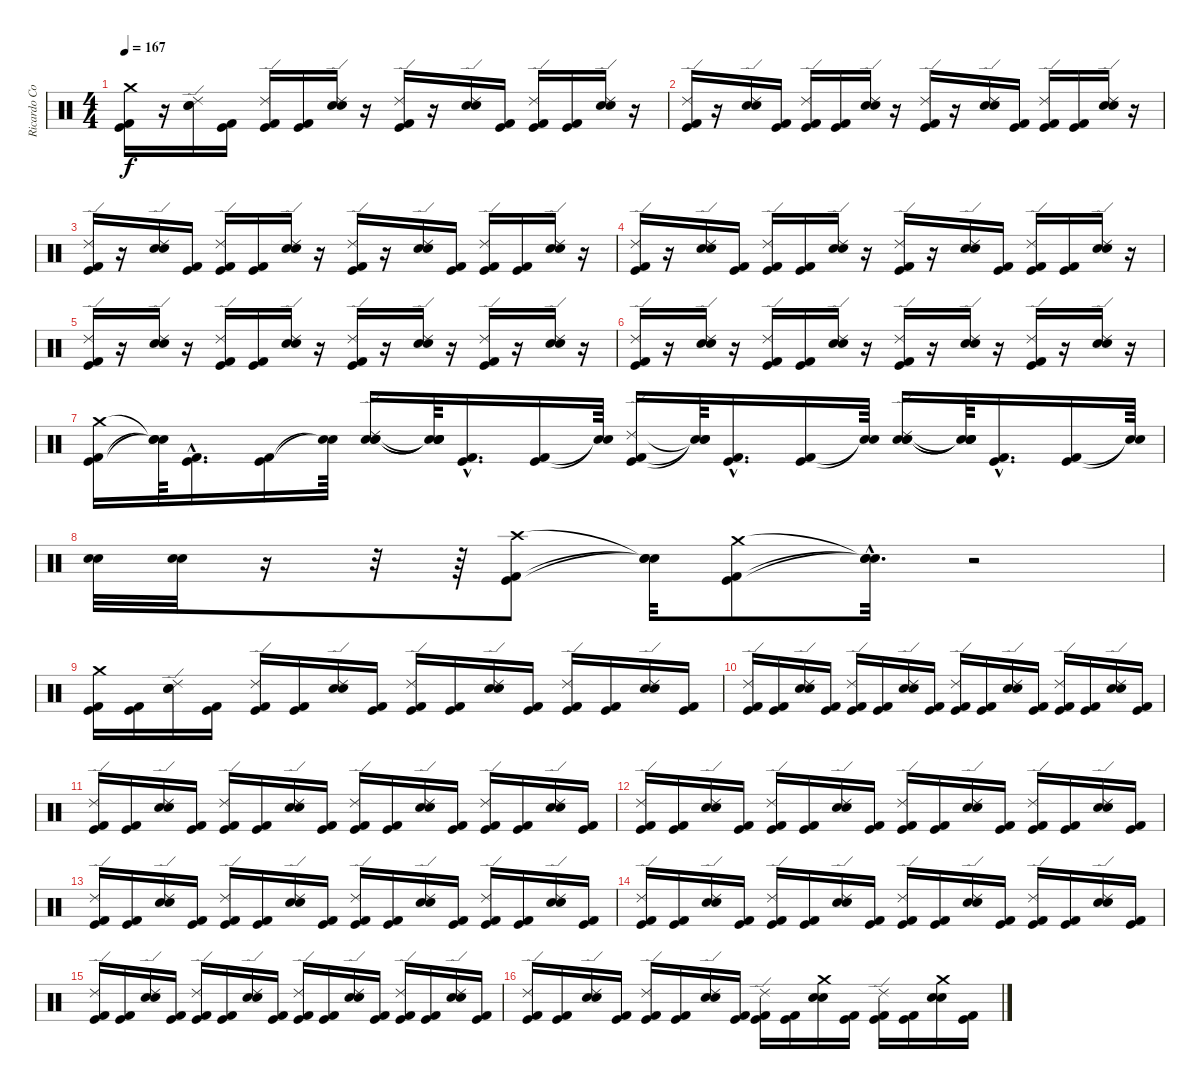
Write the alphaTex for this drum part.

\track ("Ricardo Confessori" "Ricardo Co") {instrument percussion}
\staff {score}
\articulation defaults
\ts (4 4)
\tempo 167
\clef neutral
\ks c
("Crash medium (hit)" "Kick (hit) 2" "Kick (hit)").16{dy f} r.16 ("Ride (edge) 2" "Electric Snare (hit)" "Snare (hit) 2").16 ("Kick (hit) 2" "Kick (hit)").16 ("Ride (edge) 2" "Kick (hit) 2" "Kick (hit)").16 ("Kick (hit) 2" "Kick (hit)").16 ("Ride (edge) 2" "Electric Snare (hit)" "Snare (hit) 2").16 r.16 ("Ride (edge) 2" "Kick (hit) 2" "Kick (hit)").16 r.16 ("Ride (edge) 2" "Electric Snare (hit)" "Snare (hit) 2").16 ("Kick (hit) 2" "Kick (hit)").16 ("Ride (edge) 2" "Kick (hit) 2" "Kick (hit)").16 ("Kick (hit) 2" "Kick (hit)").16 ("Ride (edge) 2" "Electric Snare (hit)" "Snare (hit) 2").16 r.16 |
("Ride (edge) 2" "Kick (hit) 2" "Kick (hit)").16 r.16 ("Ride (edge) 2" "Electric Snare (hit)" "Snare (hit) 2").16 ("Kick (hit) 2" "Kick (hit)").16 ("Ride (edge) 2" "Kick (hit) 2" "Kick (hit)").16 ("Kick (hit) 2" "Kick (hit)").16 ("Ride (edge) 2" "Electric Snare (hit)" "Snare (hit) 2").16 r.16 ("Ride (edge) 2" "Kick (hit) 2" "Kick (hit)").16 r.16 ("Ride (edge) 2" "Electric Snare (hit)" "Snare (hit) 2").16 ("Kick (hit) 2" "Kick (hit)").16 ("Ride (edge) 2" "Kick (hit) 2" "Kick (hit)").16 ("Kick (hit) 2" "Kick (hit)").16 ("Ride (edge) 2" "Electric Snare (hit)" "Snare (hit) 2").16 r.16 |
("Ride (edge) 2" "Kick (hit) 2" "Kick (hit)").16 r.16 ("Ride (edge) 2" "Electric Snare (hit)" "Snare (hit) 2").16 ("Kick (hit) 2" "Kick (hit)").16 ("Ride (edge) 2" "Kick (hit) 2" "Kick (hit)").16 ("Kick (hit) 2" "Kick (hit)").16 ("Ride (edge) 2" "Electric Snare (hit)" "Snare (hit) 2").16 r.16 ("Ride (edge) 2" "Kick (hit) 2" "Kick (hit)").16 r.16 ("Ride (edge) 2" "Electric Snare (hit)" "Snare (hit) 2").16 ("Kick (hit) 2" "Kick (hit)").16 ("Ride (edge) 2" "Kick (hit) 2" "Kick (hit)").16 ("Kick (hit) 2" "Kick (hit)").16 ("Ride (edge) 2" "Electric Snare (hit)" "Snare (hit) 2").16 r.16 |
("Ride (edge) 2" "Kick (hit) 2" "Kick (hit)").16 r.16 ("Ride (edge) 2" "Electric Snare (hit)" "Snare (hit) 2").16 ("Kick (hit) 2" "Kick (hit)").16 ("Ride (edge) 2" "Kick (hit) 2" "Kick (hit)").16 ("Kick (hit) 2" "Kick (hit)").16 ("Ride (edge) 2" "Electric Snare (hit)" "Snare (hit) 2").16 r.16 ("Ride (edge) 2" "Kick (hit) 2" "Kick (hit)").16 r.16 ("Ride (edge) 2" "Electric Snare (hit)" "Snare (hit) 2").16 ("Kick (hit) 2" "Kick (hit)").16 ("Ride (edge) 2" "Kick (hit) 2" "Kick (hit)").16 ("Kick (hit) 2" "Kick (hit)").16 ("Ride (edge) 2" "Electric Snare (hit)" "Snare (hit) 2").16 r.16 |
("Kick (hit) 2" "Ride (edge) 2" "Kick (hit)").16 r.16 ("Electric Snare (hit)" "Snare (hit) 2" "Ride (edge) 2").16 r.16 ("Kick (hit) 2" "Kick (hit)" "Ride (edge) 2").16 ("Kick (hit) 2" "Kick (hit)").16 ("Electric Snare (hit)" "Snare (hit) 2" "Ride (edge) 2").16 r.16 ("Kick (hit) 2" "Kick (hit)" "Ride (edge) 2").16 r.16 ("Electric Snare (hit)" "Snare (hit) 2" "Ride (edge) 2").16 r.16 ("Kick (hit) 2" "Kick (hit)" "Ride (edge) 2").16 r.16 ("Electric Snare (hit)" "Snare (hit) 2" "Ride (edge) 2").16 r.16 |
("Kick (hit) 2" "Ride (edge) 2" "Kick (hit)").16 r.16 ("Electric Snare (hit)" "Snare (hit) 2" "Ride (edge) 2").16 r.16 ("Kick (hit) 2" "Kick (hit)" "Ride (edge) 2").16 ("Kick (hit) 2" "Kick (hit)").16 ("Electric Snare (hit)" "Snare (hit) 2" "Ride (edge) 2").16 r.16 ("Kick (hit) 2" "Kick (hit)" "Ride (edge) 2").16 r.16 ("Electric Snare (hit)" "Snare (hit) 2" "Ride (edge) 2").16 r.16 ("Kick (hit) 2" "Kick (hit)" "Ride (edge) 2").16 r.16 ("Electric Snare (hit)" "Snare (hit) 2" "Ride (edge) 2").16 r.16 |
("Crash medium (hit)" "Kick (hit) 2" "Kick (hit)").16 ("Snare (hit)"{t} "Snare (hit)"{t} "Snare (hit)"{t}).64 ("Kick (hit) 2"{hac} "Kick (hit)"{hac}).16{d} ("Kick (hit) 2" "Kick (hit)").16 ("Snare (hit)"{t} "Snare (hit)"{t}).64 ("Electric Snare (hit)" "Snare (hit) 2" "Ride (edge) 2" "Snare (hit)").16 ("Snare (hit)"{t} "Snare (hit)"{t} "Snare (hit)"{t} "Snare (hit)"{t}).64 ("Kick (hit) 2"{hac} "Kick (hit)"{hac}).16{d} ("Kick (hit) 2" "Kick (hit)").16 ("Snare (hit)"{t} "Snare (hit)"{t}).64 ("Ride (edge) 2" "Kick (hit) 2" "Kick (hit)").16 ("Snare (hit)"{t} "Snare (hit)"{t} "Snare (hit)"{t}).64 ("Kick (hit) 2"{hac} "Kick (hit)"{hac}).16{d} ("Kick (hit) 2" "Kick (hit)").16 ("Snare (hit)"{t} "Snare (hit)"{t}).64 ("Electric Snare (hit)" "Snare (hit) 2" "Ride (edge) 2" "Snare (hit)").16 ("Snare (hit)"{t} "Snare (hit)"{t} "Snare (hit)"{t} "Snare (hit)"{t}).64 ("Kick (hit) 2"{hac} "Kick (hit)"{hac}).16{d} ("Kick (hit) 2" "Kick (hit)").16 ("Snare (hit)"{t} "Snare (hit)"{t}).64 |
("Electric Snare (hit)" "Snare (hit) 2").32 ("Snare (hit) 2" "Electric Snare (hit)").32 r.16 r.32 r.64 ("Crash high (hit)" "Kick (hit) 2" "Kick (hit)").8 ("Snare (hit)"{t} "Snare (hit)"{t} "Snare (hit)"{t}).32 ("Crash medium (hit)" "Kick (hit) 2" "Kick (hit)").8 ("Snare (hit)"{hac t} "Snare (hit)"{hac t} "Snare (hit)"{hac t}).32{d} r.2 |
("Crash medium (hit)" "Kick (hit) 2" "Kick (hit)").16 ("Kick (hit) 2" "Kick (hit)").16 ("Electric Snare (hit)" "Snare (hit) 2" "Ride (edge) 2").16 ("Kick (hit) 2" "Kick (hit)").16 ("Ride (edge) 2" "Kick (hit) 2" "Kick (hit)").16 ("Kick (hit) 2" "Kick (hit)").16 ("Electric Snare (hit)" "Snare (hit) 2" "Ride (edge) 2").16 ("Kick (hit) 2" "Kick (hit)").16 ("Ride (edge) 2" "Kick (hit) 2" "Kick (hit)").16 ("Kick (hit) 2" "Kick (hit)").16 ("Electric Snare (hit)" "Snare (hit) 2" "Ride (edge) 2").16 ("Kick (hit) 2" "Kick (hit)").16 ("Ride (edge) 2" "Kick (hit) 2" "Kick (hit)").16 ("Kick (hit) 2" "Kick (hit)").16 ("Electric Snare (hit)" "Snare (hit) 2" "Ride (edge) 2").16 ("Kick (hit) 2" "Kick (hit)").16 |
("Ride (edge) 2" "Kick (hit) 2" "Kick (hit)").16 ("Kick (hit) 2" "Kick (hit)").16 ("Electric Snare (hit)" "Snare (hit) 2" "Ride (edge) 2").16 ("Kick (hit) 2" "Kick (hit)").16 ("Ride (edge) 2" "Kick (hit) 2" "Kick (hit)").16 ("Kick (hit) 2" "Kick (hit)").16 ("Electric Snare (hit)" "Snare (hit) 2" "Ride (edge) 2").16 ("Kick (hit) 2" "Kick (hit)").16 ("Ride (edge) 2" "Kick (hit) 2" "Kick (hit)").16 ("Kick (hit) 2" "Kick (hit)").16 ("Electric Snare (hit)" "Snare (hit) 2" "Ride (edge) 2").16 ("Kick (hit) 2" "Kick (hit)").16 ("Ride (edge) 2" "Kick (hit) 2" "Kick (hit)").16 ("Kick (hit) 2" "Kick (hit)").16 ("Electric Snare (hit)" "Snare (hit) 2" "Ride (edge) 2").16 ("Kick (hit) 2" "Kick (hit)").16 |
("Ride (edge) 2" "Kick (hit) 2" "Kick (hit)").16 ("Kick (hit) 2" "Kick (hit)").16 ("Electric Snare (hit)" "Snare (hit) 2" "Ride (edge) 2").16 ("Kick (hit) 2" "Kick (hit)").16 ("Ride (edge) 2" "Kick (hit) 2" "Kick (hit)").16 ("Kick (hit) 2" "Kick (hit)").16 ("Electric Snare (hit)" "Snare (hit) 2" "Ride (edge) 2").16 ("Kick (hit) 2" "Kick (hit)").16 ("Ride (edge) 2" "Kick (hit) 2" "Kick (hit)").16 ("Kick (hit) 2" "Kick (hit)").16 ("Electric Snare (hit)" "Snare (hit) 2" "Ride (edge) 2").16 ("Kick (hit) 2" "Kick (hit)").16 ("Ride (edge) 2" "Kick (hit) 2" "Kick (hit)").16 ("Kick (hit) 2" "Kick (hit)").16 ("Electric Snare (hit)" "Snare (hit) 2" "Ride (edge) 2").16 ("Kick (hit) 2" "Kick (hit)").16 |
("Ride (edge) 2" "Kick (hit) 2" "Kick (hit)").16 ("Kick (hit) 2" "Kick (hit)").16 ("Electric Snare (hit)" "Snare (hit) 2" "Ride (edge) 2").16 ("Kick (hit) 2" "Kick (hit)").16 ("Ride (edge) 2" "Kick (hit) 2" "Kick (hit)").16 ("Kick (hit) 2" "Kick (hit)").16 ("Electric Snare (hit)" "Snare (hit) 2" "Ride (edge) 2").16 ("Kick (hit) 2" "Kick (hit)").16 ("Ride (edge) 2" "Kick (hit) 2" "Kick (hit)").16 ("Kick (hit) 2" "Kick (hit)").16 ("Electric Snare (hit)" "Snare (hit) 2" "Ride (edge) 2").16 ("Kick (hit) 2" "Kick (hit)").16 ("Ride (edge) 2" "Kick (hit) 2" "Kick (hit)").16 ("Kick (hit) 2" "Kick (hit)").16 ("Electric Snare (hit)" "Snare (hit) 2" "Ride (edge) 2").16 ("Kick (hit) 2" "Kick (hit)").16 |
("Ride (edge) 2" "Kick (hit) 2" "Kick (hit)").16 ("Kick (hit) 2" "Kick (hit)").16 ("Electric Snare (hit)" "Snare (hit) 2" "Ride (edge) 2").16 ("Kick (hit) 2" "Kick (hit)").16 ("Ride (edge) 2" "Kick (hit) 2" "Kick (hit)").16 ("Kick (hit) 2" "Kick (hit)").16 ("Electric Snare (hit)" "Snare (hit) 2" "Ride (edge) 2").16 ("Kick (hit) 2" "Kick (hit)").16 ("Ride (edge) 2" "Kick (hit) 2" "Kick (hit)").16 ("Kick (hit) 2" "Kick (hit)").16 ("Electric Snare (hit)" "Snare (hit) 2" "Ride (edge) 2").16 ("Kick (hit) 2" "Kick (hit)").16 ("Ride (edge) 2" "Kick (hit) 2" "Kick (hit)").16 ("Kick (hit) 2" "Kick (hit)").16 ("Electric Snare (hit)" "Snare (hit) 2" "Ride (edge) 2").16 ("Kick (hit) 2" "Kick (hit)").16 |
("Ride (edge) 2" "Kick (hit) 2" "Kick (hit)").16 ("Kick (hit) 2" "Kick (hit)").16 ("Electric Snare (hit)" "Snare (hit) 2" "Ride (edge) 2").16 ("Kick (hit) 2" "Kick (hit)").16 ("Ride (edge) 2" "Kick (hit) 2" "Kick (hit)").16 ("Kick (hit) 2" "Kick (hit)").16 ("Electric Snare (hit)" "Snare (hit) 2" "Ride (edge) 2").16 ("Kick (hit) 2" "Kick (hit)").16 ("Ride (edge) 2" "Kick (hit) 2" "Kick (hit)").16 ("Kick (hit) 2" "Kick (hit)").16 ("Electric Snare (hit)" "Snare (hit) 2" "Ride (edge) 2").16 ("Kick (hit) 2" "Kick (hit)").16 ("Ride (edge) 2" "Kick (hit) 2" "Kick (hit)").16 ("Kick (hit) 2" "Kick (hit)").16 ("Electric Snare (hit)" "Snare (hit) 2" "Ride (edge) 2").16 ("Kick (hit) 2" "Kick (hit)").16 |
("Ride (edge) 2" "Kick (hit) 2" "Kick (hit)").16 ("Kick (hit) 2" "Kick (hit)").16 ("Electric Snare (hit)" "Snare (hit) 2" "Ride (edge) 2").16 ("Kick (hit) 2" "Kick (hit)").16 ("Ride (edge) 2" "Kick (hit) 2" "Kick (hit)").16 ("Kick (hit) 2" "Kick (hit)").16 ("Electric Snare (hit)" "Snare (hit) 2" "Ride (edge) 2").16 ("Kick (hit) 2" "Kick (hit)").16 ("Ride (edge) 2" "Kick (hit) 2" "Kick (hit)").16 ("Kick (hit) 2" "Kick (hit)").16 ("Electric Snare (hit)" "Snare (hit) 2" "Ride (edge) 2").16 ("Kick (hit) 2" "Kick (hit)").16 ("Ride (edge) 2" "Kick (hit) 2" "Kick (hit)").16 ("Kick (hit) 2" "Kick (hit)").16 ("Electric Snare (hit)" "Snare (hit) 2" "Ride (edge) 2").16 ("Kick (hit) 2" "Kick (hit)").16 |
("Ride (edge) 2" "Kick (hit) 2" "Kick (hit)").16 ("Kick (hit) 2" "Kick (hit)").16 ("Electric Snare (hit)" "Snare (hit) 2" "Ride (edge) 2").16 ("Kick (hit) 2" "Kick (hit)").16 ("Ride (edge) 2" "Kick (hit) 2" "Kick (hit)").16 ("Kick (hit) 2" "Kick (hit)").16 ("Electric Snare (hit)" "Snare (hit) 2" "Ride (edge) 2").16 ("Kick (hit) 2" "Kick (hit)").16 ("Ride (edge) 2" "Kick (hit) 2" "Kick (hit)").16 ("Kick (hit) 2" "Kick (hit)").16 ("Crash medium (hit)" "Electric Snare (hit)" "Snare (hit) 2").16 ("Kick (hit) 2" "Kick (hit)").16 ("Ride (edge) 2" "Kick (hit) 2" "Kick (hit)").16 ("Kick (hit) 2" "Kick (hit)").16 ("Crash medium (hit)" "Electric Snare (hit)" "Snare (hit) 2").16 ("Kick (hit) 2" "Kick (hit)").16
